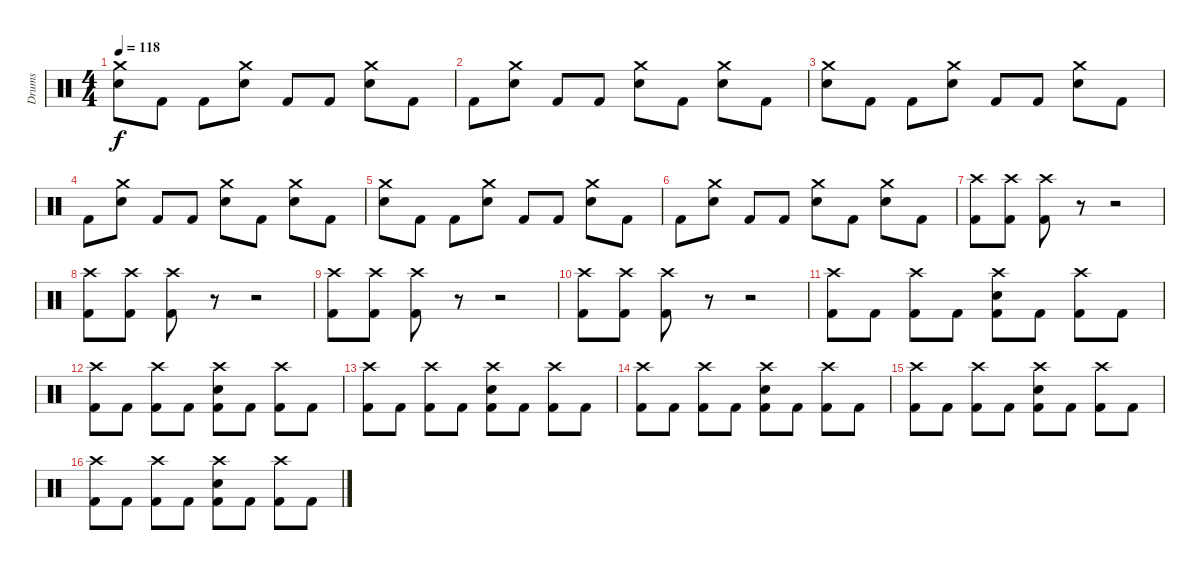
\track ("Drums" "Drums") {instrument percussion}
\staff {score}
\articulation defaults
\ts (4 4)
\tempo 118
\clef neutral
\ks c
("Snare (hit) 2" "Crash medium (hit)").8{dy f} "Kick (hit) 2".8 "Kick (hit) 2".8 ("Snare (hit) 2" "Crash medium (hit)").8 "Kick (hit) 2".8 "Kick (hit) 2".8 ("Snare (hit) 2" "Crash medium (hit)").8 "Kick (hit) 2".8 |
"Kick (hit) 2".8 ("Snare (hit) 2" "Crash medium (hit)").8 "Kick (hit) 2".8 "Kick (hit) 2".8 ("Snare (hit) 2" "Crash medium (hit)").8 "Kick (hit) 2".8 ("Snare (hit) 2" "Crash medium (hit)").8 "Kick (hit) 2".8 |
("Snare (hit) 2" "Crash medium (hit)").8 "Kick (hit) 2".8 "Kick (hit) 2".8 ("Snare (hit) 2" "Crash medium (hit)").8 "Kick (hit) 2".8 "Kick (hit) 2".8 ("Snare (hit) 2" "Crash medium (hit)").8 "Kick (hit) 2".8 |
"Kick (hit) 2".8 ("Snare (hit) 2" "Crash medium (hit)").8 "Kick (hit) 2".8 "Kick (hit) 2".8 ("Snare (hit) 2" "Crash medium (hit)").8 "Kick (hit) 2".8 ("Snare (hit) 2" "Crash medium (hit)").8 "Kick (hit) 2".8 |
("Snare (hit) 2" "Crash medium (hit)").8 "Kick (hit) 2".8 "Kick (hit) 2".8 ("Snare (hit) 2" "Crash medium (hit)").8 "Kick (hit) 2".8 "Kick (hit) 2".8 ("Snare (hit) 2" "Crash medium (hit)").8 "Kick (hit) 2".8 |
"Kick (hit) 2".8 ("Snare (hit) 2" "Crash medium (hit)").8 "Kick (hit) 2".8 "Kick (hit) 2".8 ("Snare (hit) 2" "Crash medium (hit)").8 "Kick (hit) 2".8 ("Snare (hit) 2" "Crash medium (hit)").8 "Kick (hit) 2".8 |
("Kick (hit) 2" "Crash high (hit)").8 ("Kick (hit) 2" "Crash high (hit)").8 ("Kick (hit) 2" "Crash high (hit)").8 r.8 r.2 |
("Kick (hit) 2" "Crash high (hit)").8 ("Kick (hit) 2" "Crash high (hit)").8 ("Kick (hit) 2" "Crash high (hit)").8 r.8 r.2 |
("Kick (hit) 2" "Crash high (hit)").8 ("Kick (hit) 2" "Crash high (hit)").8 ("Kick (hit) 2" "Crash high (hit)").8 r.8 r.2 |
("Kick (hit) 2" "Crash high (hit)").8 ("Kick (hit) 2" "Crash high (hit)").8 ("Kick (hit) 2" "Crash high (hit)").8 r.8 r.2 |
("Kick (hit) 2" "Crash high (hit)").8 "Kick (hit) 2".8 ("Kick (hit) 2" "Crash high (hit)").8 "Kick (hit) 2".8 ("Kick (hit) 2" "Snare (hit) 2" "Crash high (hit)").8 "Kick (hit) 2".8 ("Kick (hit) 2" "Crash high (hit)").8 "Kick (hit) 2".8 |
("Kick (hit) 2" "Crash high (hit)").8 "Kick (hit) 2".8 ("Kick (hit) 2" "Crash high (hit)").8 "Kick (hit) 2".8 ("Kick (hit) 2" "Snare (hit) 2" "Crash high (hit)").8 "Kick (hit) 2".8 ("Kick (hit) 2" "Crash high (hit)").8 "Kick (hit) 2".8 |
("Kick (hit) 2" "Crash high (hit)").8 "Kick (hit) 2".8 ("Kick (hit) 2" "Crash high (hit)").8 "Kick (hit) 2".8 ("Kick (hit) 2" "Snare (hit) 2" "Crash high (hit)").8 "Kick (hit) 2".8 ("Kick (hit) 2" "Crash high (hit)").8 "Kick (hit) 2".8 |
("Kick (hit) 2" "Crash high (hit)").8 "Kick (hit) 2".8 ("Kick (hit) 2" "Crash high (hit)").8 "Kick (hit) 2".8 ("Kick (hit) 2" "Snare (hit) 2" "Crash high (hit)").8 "Kick (hit) 2".8 ("Kick (hit) 2" "Crash high (hit)").8 "Kick (hit) 2".8 |
("Kick (hit) 2" "Crash high (hit)").8 "Kick (hit) 2".8 ("Kick (hit) 2" "Crash high (hit)").8 "Kick (hit) 2".8 ("Kick (hit) 2" "Snare (hit) 2" "Crash high (hit)").8 "Kick (hit) 2".8 ("Kick (hit) 2" "Crash high (hit)").8 "Kick (hit) 2".8 |
("Kick (hit) 2" "Crash high (hit)").8 "Kick (hit) 2".8 ("Kick (hit) 2" "Crash high (hit)").8 "Kick (hit) 2".8 ("Kick (hit) 2" "Snare (hit) 2" "Crash high (hit)").8 "Kick (hit) 2".8 ("Kick (hit) 2" "Crash high (hit)").8 "Kick (hit) 2".8
